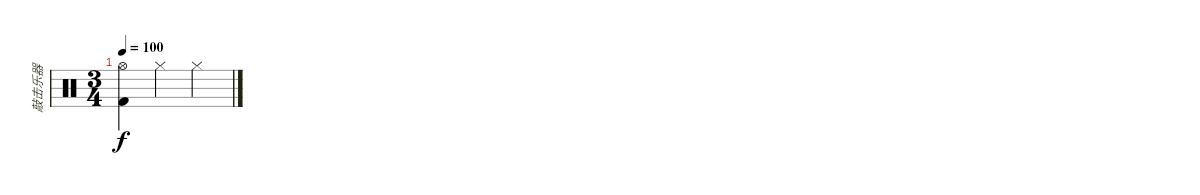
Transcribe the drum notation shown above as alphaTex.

\track ("敲击乐器" "敲击乐器") {instrument percussion}
\staff {score}
\articulation defaults
\ts (3 4)
\tempo 100
\clef neutral
\ks c
("Hi-Hat (open)" "Kick (hit) 2").4{dy f} "Hi-Hat (closed)".4 "Hi-Hat (closed)".4
